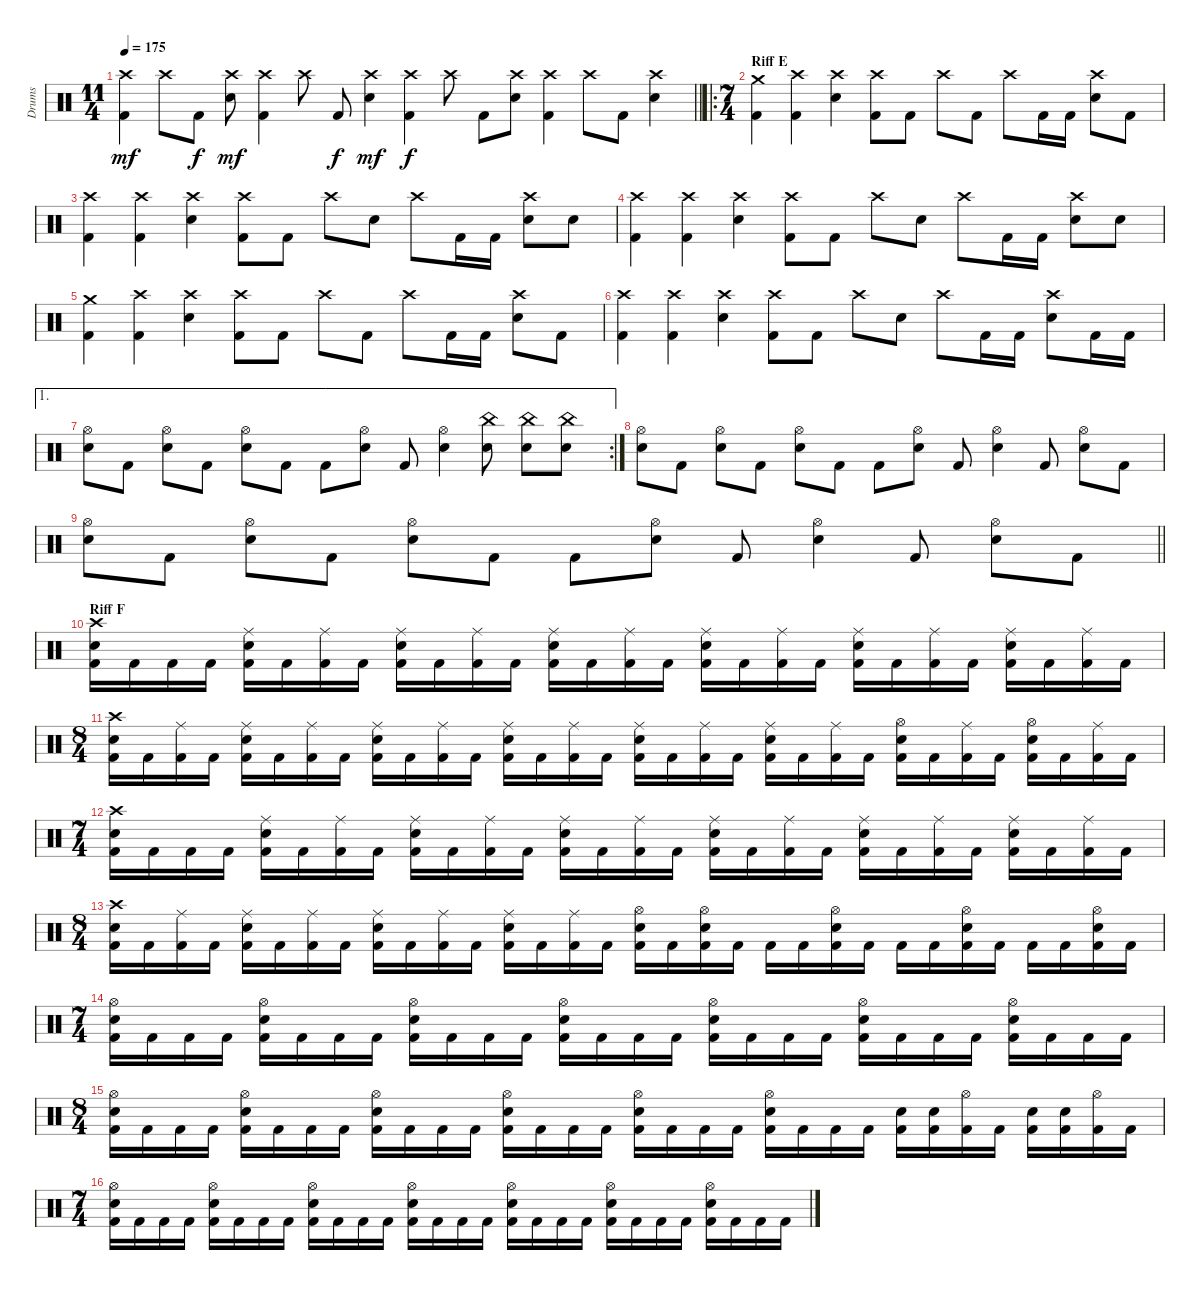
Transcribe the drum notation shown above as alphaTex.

\track ("Drums" "Drums") {instrument percussion}
\staff {score}
\articulation defaults
\ts (11 4)
\tempo 175
\clef neutral
\barLineRight lightlight
\ks c
("Crash high (hit)" "Kick (hit) 2").4{dy mf} "Crash high (hit)".8 "Kick (hit) 2".8{dy f} ("Crash high (hit)" "Snare (hit) 2").8{dy mf} ("Crash high (hit)" "Kick (hit) 2").4 "Crash high (hit)".8 "Kick (hit) 2".8{dy f} ("Crash high (hit)" "Snare (hit) 2").4{dy mf} ("Crash high (hit)" "Kick (hit) 2").4{dy f} "Crash high (hit)".8 "Kick (hit) 2".8 ("Crash high (hit)" "Snare (hit) 2").8 ("Crash high (hit)" "Kick (hit) 2").4 "Crash high (hit)".8 "Kick (hit) 2".8 ("Crash high (hit)" "Snare (hit) 2").4 |
\ro
\ts (7 4)
\section ("" "Riff E")
("Kick (hit) 2" "Crash medium (hit)").4 ("Kick (hit) 2" "Crash high (hit)").4 ("Crash high (hit)" "Snare (hit) 2").4 ("Crash high (hit)" "Kick (hit) 2").8 "Kick (hit) 2".8 "Crash high (hit)".8 "Kick (hit) 2".8 "Crash high (hit)".8 "Kick (hit) 2".16 "Kick (hit) 2".16 ("Snare (hit) 2" "Crash high (hit)").8 "Kick (hit) 2".8 |
("Kick (hit) 2" "Crash high (hit)").4 ("Kick (hit) 2" "Crash high (hit)").4 ("Crash high (hit)" "Snare (hit) 2").4 ("Kick (hit) 2" "Crash high (hit)").8 "Kick (hit) 2".8 "Crash high (hit)".8 "Snare (hit) 2".8 "Crash high (hit)".8 "Kick (hit) 2".16 "Kick (hit) 2".16 ("Snare (hit) 2" "Crash high (hit)").8 "Snare (hit) 2".8 |
("Kick (hit) 2" "Crash high (hit)").4 ("Kick (hit) 2" "Crash high (hit)").4 ("Crash high (hit)" "Snare (hit) 2").4 ("Kick (hit) 2" "Crash high (hit)").8 "Kick (hit) 2".8 "Crash high (hit)".8 "Snare (hit) 2".8 "Crash high (hit)".8 "Kick (hit) 2".16 "Kick (hit) 2".16 ("Snare (hit) 2" "Crash high (hit)").8 "Snare (hit) 2".8 |
("Kick (hit) 2" "Crash medium (hit)").4 ("Kick (hit) 2" "Crash high (hit)").4 ("Crash high (hit)" "Snare (hit) 2").4 ("Crash high (hit)" "Kick (hit) 2").8 "Kick (hit) 2".8 "Crash high (hit)".8 "Kick (hit) 2".8 "Crash high (hit)".8 "Kick (hit) 2".16 "Kick (hit) 2".16 ("Snare (hit) 2" "Crash high (hit)").8 "Kick (hit) 2".8 |
("Kick (hit) 2" "Crash high (hit)").4 ("Kick (hit) 2" "Crash high (hit)").4 ("Crash high (hit)" "Snare (hit) 2").4 ("Kick (hit) 2" "Crash high (hit)").8 "Kick (hit) 2".8 "Crash high (hit)".8 "Snare (hit) 2".8 "Crash high (hit)".8 "Kick (hit) 2".16 "Kick (hit) 2".16 ("Snare (hit) 2" "Crash high (hit)").8 "Kick (hit) 2".16 "Kick (hit) 2".16 |
\ae 1
\rc 2
("Hi-Hat (open)" "Snare (hit) 2").8 "Kick (hit) 2".8 ("Snare (hit) 2" "Hi-Hat (open)").8 "Kick (hit) 2".8 ("Hi-Hat (open)" "Snare (hit) 2").8 "Kick (hit) 2".8 "Kick (hit) 2".8 ("Snare (hit) 2" "Hi-Hat (open)").8 "Kick (hit) 2".8 ("Snare (hit) 2" "Hi-Hat (open)").4 ("Snare (hit) 2" "China (hit)").8 ("China (hit)" "Snare (hit) 2").8 ("China (hit)" "Snare (hit) 2").8 |
("Hi-Hat (open)" "Snare (hit) 2").8 "Kick (hit) 2".8 ("Snare (hit) 2" "Hi-Hat (open)").8 "Kick (hit) 2".8 ("Hi-Hat (open)" "Snare (hit) 2").8 "Kick (hit) 2".8 "Kick (hit) 2".8 ("Snare (hit) 2" "Hi-Hat (open)").8 "Kick (hit) 2".8 ("Snare (hit) 2" "Hi-Hat (open)").4 "Kick (hit) 2".8 ("Snare (hit) 2" "Hi-Hat (open)").8 "Kick (hit) 2".8 |
\barLineRight lightlight
("Hi-Hat (open)" "Snare (hit) 2").8 "Kick (hit) 2".8 ("Snare (hit) 2" "Hi-Hat (open)").8 "Kick (hit) 2".8 ("Hi-Hat (open)" "Snare (hit) 2").8 "Kick (hit) 2".8 "Kick (hit) 2".8 ("Snare (hit) 2" "Hi-Hat (open)").8 "Kick (hit) 2".8 ("Snare (hit) 2" "Hi-Hat (open)").4 "Kick (hit) 2".8 ("Snare (hit) 2" "Hi-Hat (open)").8 "Kick (hit) 2".8 |
\section ("" "Riff F")
("Kick (hit) 2" "Snare (hit) 2" "Crash high (hit)").16 "Kick (hit) 2".16 "Kick (hit) 2".16 "Kick (hit) 2".16 ("Kick (hit) 2" "Snare (hit) 2" "Ride (middle)").16 "Kick (hit) 2".16 ("Kick (hit) 2" "Ride (middle)").16 "Kick (hit) 2".16 ("Kick (hit) 2" "Ride (middle)" "Snare (hit) 2").16 "Kick (hit) 2".16 ("Kick (hit) 2" "Ride (middle)").16 "Kick (hit) 2".16 ("Kick (hit) 2" "Ride (middle)" "Snare (hit) 2").16 "Kick (hit) 2".16 ("Kick (hit) 2" "Ride (middle)").16 "Kick (hit) 2".16 ("Kick (hit) 2" "Ride (middle)" "Snare (hit) 2").16 "Kick (hit) 2".16 ("Kick (hit) 2" "Ride (middle)").16 "Kick (hit) 2".16 ("Kick (hit) 2" "Ride (middle)" "Snare (hit) 2").16 "Kick (hit) 2".16 ("Kick (hit) 2" "Ride (middle)").16 "Kick (hit) 2".16 ("Kick (hit) 2" "Ride (middle)" "Snare (hit) 2").16 "Kick (hit) 2".16 ("Kick (hit) 2" "Ride (middle)").16 "Kick (hit) 2".16 |
\ts (8 4)
("Kick (hit) 2" "Crash high (hit)" "Snare (hit) 2").16 "Kick (hit) 2".16 ("Kick (hit) 2" "Ride (middle)").16 "Kick (hit) 2".16 ("Kick (hit) 2" "Ride (middle)" "Snare (hit) 2").16 "Kick (hit) 2".16 ("Kick (hit) 2" "Ride (middle)").16 "Kick (hit) 2".16 ("Kick (hit) 2" "Ride (middle)" "Snare (hit) 2").16 "Kick (hit) 2".16 ("Kick (hit) 2" "Ride (middle)").16 "Kick (hit) 2".16 ("Kick (hit) 2" "Ride (middle)" "Snare (hit) 2").16 "Kick (hit) 2".16 ("Kick (hit) 2" "Ride (middle)").16 "Kick (hit) 2".16 ("Kick (hit) 2" "Ride (middle)" "Snare (hit) 2").16 "Kick (hit) 2".16 ("Kick (hit) 2" "Ride (middle)").16 "Kick (hit) 2".16 ("Kick (hit) 2" "Ride (middle)" "Snare (hit) 2").16 "Kick (hit) 2".16 ("Kick (hit) 2" "Ride (middle)").16 "Kick (hit) 2".16 ("Kick (hit) 2" "Hi-Hat (open)" "Snare (hit) 2").16 "Kick (hit) 2".16 ("Kick (hit) 2" "Ride (middle)").16 "Kick (hit) 2".16 ("Kick (hit) 2" "Hi-Hat (open)" "Snare (hit) 2").16 "Kick (hit) 2".16 ("Kick (hit) 2" "Ride (middle)").16 "Kick (hit) 2".16 |
\ts (7 4)
("Kick (hit) 2" "Snare (hit) 2" "Crash high (hit)").16 "Kick (hit) 2".16 "Kick (hit) 2".16 "Kick (hit) 2".16 ("Kick (hit) 2" "Snare (hit) 2" "Ride (middle)").16 "Kick (hit) 2".16 ("Kick (hit) 2" "Ride (middle)").16 "Kick (hit) 2".16 ("Kick (hit) 2" "Ride (middle)" "Snare (hit) 2").16 "Kick (hit) 2".16 ("Kick (hit) 2" "Ride (middle)").16 "Kick (hit) 2".16 ("Kick (hit) 2" "Ride (middle)" "Snare (hit) 2").16 "Kick (hit) 2".16 ("Kick (hit) 2" "Ride (middle)").16 "Kick (hit) 2".16 ("Kick (hit) 2" "Ride (middle)" "Snare (hit) 2").16 "Kick (hit) 2".16 ("Kick (hit) 2" "Ride (middle)").16 "Kick (hit) 2".16 ("Kick (hit) 2" "Ride (middle)" "Snare (hit) 2").16 "Kick (hit) 2".16 ("Kick (hit) 2" "Ride (middle)").16 "Kick (hit) 2".16 ("Kick (hit) 2" "Ride (middle)" "Snare (hit) 2").16 "Kick (hit) 2".16 ("Kick (hit) 2" "Ride (middle)").16 "Kick (hit) 2".16 |
\ts (8 4)
("Kick (hit) 2" "Crash high (hit)" "Snare (hit) 2").16 "Kick (hit) 2".16 ("Kick (hit) 2" "Ride (middle)").16 "Kick (hit) 2".16 ("Kick (hit) 2" "Ride (middle)" "Snare (hit) 2").16 "Kick (hit) 2".16 ("Kick (hit) 2" "Ride (middle)").16 "Kick (hit) 2".16 ("Kick (hit) 2" "Ride (middle)" "Snare (hit) 2").16 "Kick (hit) 2".16 ("Kick (hit) 2" "Ride (middle)").16 "Kick (hit) 2".16 ("Kick (hit) 2" "Ride (middle)" "Snare (hit) 2").16 "Kick (hit) 2".16 ("Kick (hit) 2" "Ride (middle)").16 "Kick (hit) 2".16 ("Kick (hit) 2" "Hi-Hat (open)" "Snare (hit) 2").16 "Kick (hit) 2".16 ("Kick (hit) 2" "Hi-Hat (open)" "Snare (hit) 2").16 "Kick (hit) 2".16 "Kick (hit) 2".16 "Kick (hit) 2".16 ("Kick (hit) 2" "Hi-Hat (open)" "Snare (hit) 2").16 "Kick (hit) 2".16 "Kick (hit) 2".16 "Kick (hit) 2".16 ("Kick (hit) 2" "Hi-Hat (open)" "Snare (hit) 2").16 "Kick (hit) 2".16 "Kick (hit) 2".16 "Kick (hit) 2".16 ("Kick (hit) 2" "Snare (hit) 2" "Hi-Hat (open)").16 "Kick (hit) 2".16 |
\ts (7 4)
("Kick (hit) 2" "Snare (hit) 2" "Hi-Hat (open)").16 "Kick (hit) 2".16 "Kick (hit) 2".16 "Kick (hit) 2".16 ("Kick (hit) 2" "Snare (hit) 2" "Hi-Hat (open)").16 "Kick (hit) 2".16 "Kick (hit) 2".16 "Kick (hit) 2".16 ("Kick (hit) 2" "Hi-Hat (open)" "Snare (hit) 2").16 "Kick (hit) 2".16 "Kick (hit) 2".16 "Kick (hit) 2".16 ("Kick (hit) 2" "Hi-Hat (open)" "Snare (hit) 2").16 "Kick (hit) 2".16 "Kick (hit) 2".16 "Kick (hit) 2".16 ("Kick (hit) 2" "Hi-Hat (open)" "Snare (hit) 2").16 "Kick (hit) 2".16 "Kick (hit) 2".16 "Kick (hit) 2".16 ("Kick (hit) 2" "Snare (hit) 2" "Hi-Hat (open)").16 "Kick (hit) 2".16 "Kick (hit) 2".16 "Kick (hit) 2".16 ("Kick (hit) 2" "Hi-Hat (open)" "Snare (hit) 2").16 "Kick (hit) 2".16 "Kick (hit) 2".16 "Kick (hit) 2".16 |
\ts (8 4)
("Kick (hit) 2" "Hi-Hat (open)" "Snare (hit) 2").16 "Kick (hit) 2".16 "Kick (hit) 2".16 "Kick (hit) 2".16 ("Kick (hit) 2" "Hi-Hat (open)" "Snare (hit) 2").16 "Kick (hit) 2".16 "Kick (hit) 2".16 "Kick (hit) 2".16 ("Kick (hit) 2" "Hi-Hat (open)" "Snare (hit) 2").16 "Kick (hit) 2".16 "Kick (hit) 2".16 "Kick (hit) 2".16 ("Kick (hit) 2" "Hi-Hat (open)" "Snare (hit) 2").16 "Kick (hit) 2".16 "Kick (hit) 2".16 "Kick (hit) 2".16 ("Kick (hit) 2" "Hi-Hat (open)" "Snare (hit) 2").16 "Kick (hit) 2".16 "Kick (hit) 2".16 "Kick (hit) 2".16 ("Kick (hit) 2" "Hi-Hat (open)" "Snare (hit) 2").16 "Kick (hit) 2".16 "Kick (hit) 2".16 "Kick (hit) 2".16 ("Kick (hit) 2" "Snare (hit) 2").16 ("Kick (hit) 2" "Snare (hit) 2").16 ("Kick (hit) 2" "Hi-Hat (open)").16 "Kick (hit) 2".16 ("Kick (hit) 2" "Snare (hit) 2").16 ("Kick (hit) 2" "Snare (hit) 2").16 ("Kick (hit) 2" "Hi-Hat (open)").16 "Kick (hit) 2".16 |
\ts (7 4)
("Kick (hit) 2" "Snare (hit) 2" "Hi-Hat (open)").16 "Kick (hit) 2".16 "Kick (hit) 2".16 "Kick (hit) 2".16 ("Kick (hit) 2" "Snare (hit) 2" "Hi-Hat (open)").16 "Kick (hit) 2".16 "Kick (hit) 2".16 "Kick (hit) 2".16 ("Kick (hit) 2" "Hi-Hat (open)" "Snare (hit) 2").16 "Kick (hit) 2".16 "Kick (hit) 2".16 "Kick (hit) 2".16 ("Kick (hit) 2" "Hi-Hat (open)" "Snare (hit) 2").16 "Kick (hit) 2".16 "Kick (hit) 2".16 "Kick (hit) 2".16 ("Kick (hit) 2" "Hi-Hat (open)" "Snare (hit) 2").16 "Kick (hit) 2".16 "Kick (hit) 2".16 "Kick (hit) 2".16 ("Kick (hit) 2" "Snare (hit) 2" "Hi-Hat (open)").16 "Kick (hit) 2".16 "Kick (hit) 2".16 "Kick (hit) 2".16 ("Kick (hit) 2" "Hi-Hat (open)" "Snare (hit) 2").16 "Kick (hit) 2".16 "Kick (hit) 2".16 "Kick (hit) 2".16
